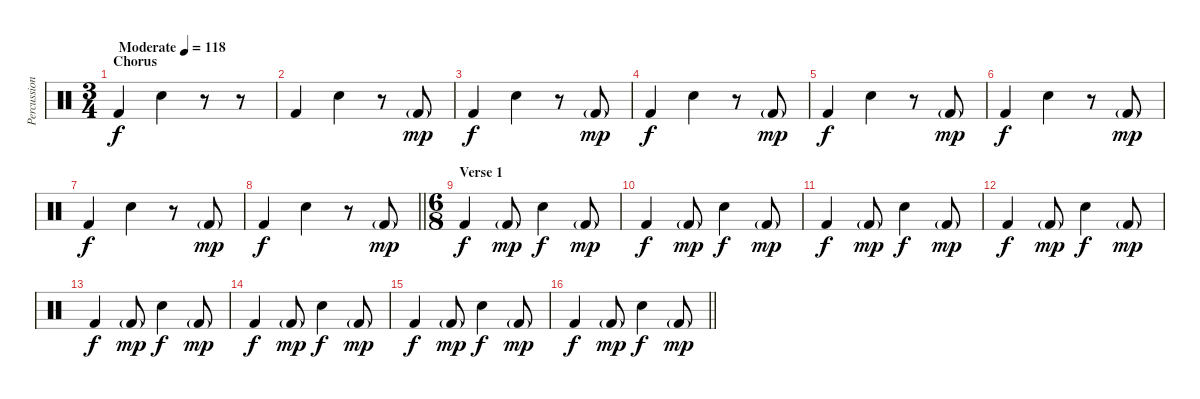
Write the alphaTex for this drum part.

\track ("Percussion" "Percussion") {instrument percussion}
\staff {score}
\articulation defaults
\ts (3 4)
\section ("" "Chorus")
\tempo (118 "Moderate")
\clef neutral
\ks c "Kick (hit) 2".4{dy f} "Snare (hit) 2".4
r.8 r.8 |
"Kick (hit) 2".4 "Snare (hit) 2".4 r.8 "Kick (hit) 2"{g}.8{dy mp} |
"Kick (hit) 2".4{dy f} "Snare (hit) 2".4 r.8 "Kick (hit) 2"{g}.8{dy mp} |
"Kick (hit) 2".4{dy f} "Snare (hit) 2".4 r.8 "Kick (hit) 2"{g}.8{dy mp} |
"Kick (hit) 2".4{dy f} "Snare (hit) 2".4 r.8 "Kick (hit) 2"{g}.8{dy mp} |
"Kick (hit) 2".4{dy f} "Snare (hit) 2".4 r.8 "Kick (hit) 2"{g}.8{dy mp} |
"Kick (hit) 2".4{dy f} "Snare (hit) 2".4 r.8 "Kick (hit) 2"{g}.8{dy mp} |
\barLineRight lightlight "Kick (hit) 2".4{dy f} "Snare (hit) 2".4
r.8 "Kick (hit) 2"{g}.8{dy mp} |
\ts (6 8)
\section ("" "Verse 1")
"Kick (hit) 2".4{dy f} "Kick (hit) 2"{g}.8{dy mp} "Snare (hit) 2".4{dy f} "Kick (hit) 2"{g}.8{dy mp} |
"Kick (hit) 2".4{dy f} "Kick (hit) 2"{g}.8{dy mp} "Snare (hit) 2".4{dy f} "Kick (hit) 2"{g}.8{dy mp} |
"Kick (hit) 2".4{dy f} "Kick (hit) 2"{g}.8{dy mp} "Snare (hit) 2".4{dy f} "Kick (hit) 2"{g}.8{dy mp} |
"Kick (hit) 2".4{dy f} "Kick (hit) 2"{g}.8{dy mp} "Snare (hit) 2".4{dy f} "Kick (hit) 2"{g}.8{dy mp} |
"Kick (hit) 2".4{dy f} "Kick (hit) 2"{g}.8{dy mp} "Snare (hit) 2".4{dy f} "Kick (hit) 2"{g}.8{dy mp} |
"Kick (hit) 2".4{dy f} "Kick (hit) 2"{g}.8{dy mp} "Snare (hit) 2".4{dy f} "Kick (hit) 2"{g}.8{dy mp} |
"Kick (hit) 2".4{dy f} "Kick (hit) 2"{g}.8{dy mp} "Snare (hit) 2".4{dy f} "Kick (hit) 2"{g}.8{dy mp} |
\barLineRight lightlight "Kick (hit) 2".4{dy f} "Kick (hit) 2"{g}.8{dy mp} "Snare (hit) 2".4{dy f} "Kick (hit) 2"{g}.8{dy mp}
